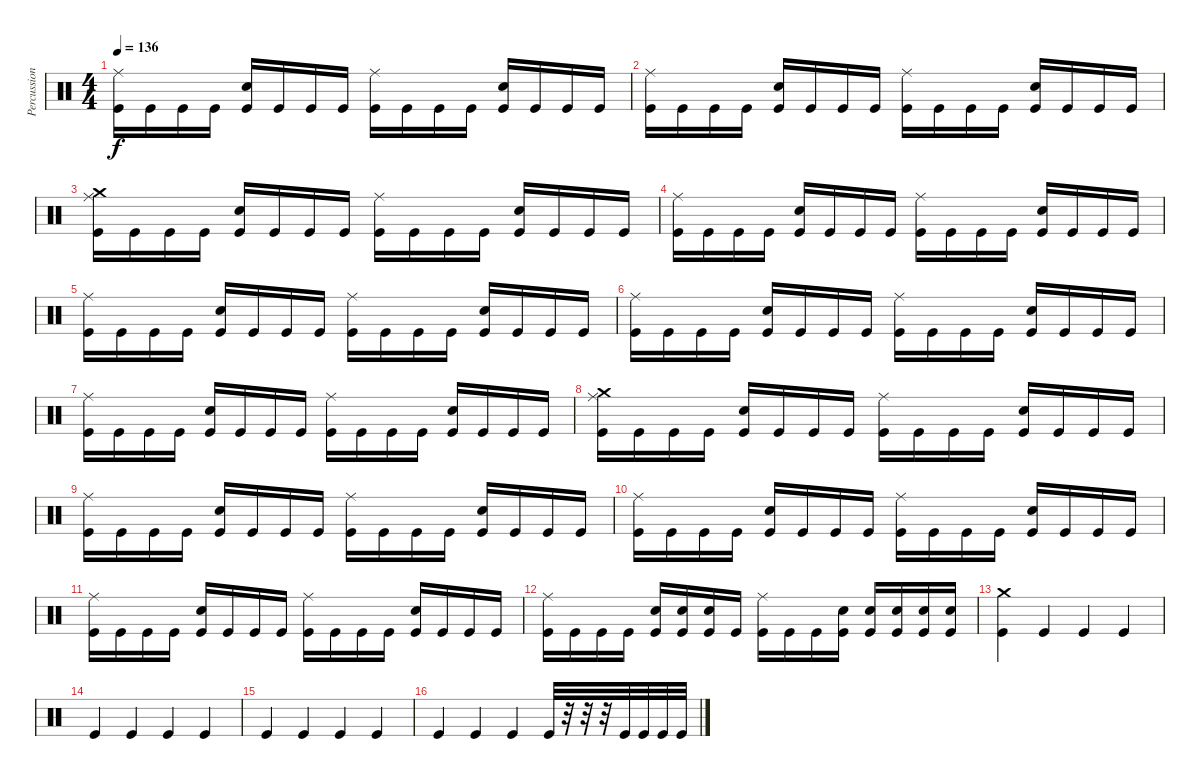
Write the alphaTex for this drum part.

\track ("Percussion IV" "Percussion") {instrument percussion}
\staff {score}
\articulation defaults
\ts (4 4)
\tempo 136
\clef neutral
\ks c
("Ride (middle)" "Kick (hit)").16{dy f} "Kick (hit)".16 "Kick (hit)".16 "Kick (hit)".16 ("Electric Snare (hit)" "Kick (hit)").16 "Kick (hit)".16 "Kick (hit)".16 "Kick (hit)".16 ("Ride (middle)" "Kick (hit)").16 "Kick (hit)".16 "Kick (hit)".16 "Kick (hit)".16 ("Electric Snare (hit)" "Kick (hit)").16 "Kick (hit)".16 "Kick (hit)".16 "Kick (hit)".16 |
("Ride (middle)" "Kick (hit)").16 "Kick (hit)".16 "Kick (hit)".16 "Kick (hit)".16 ("Electric Snare (hit)" "Kick (hit)").16 "Kick (hit)".16 "Kick (hit)".16 "Kick (hit)".16 ("Ride (middle)" "Kick (hit)").16 "Kick (hit)".16 "Kick (hit)".16 "Kick (hit)".16 ("Electric Snare (hit)" "Kick (hit)").16 "Kick (hit)".16 "Kick (hit)".16 "Kick (hit)".16 |
("Crash medium (hit)" "Ride (middle)" "Kick (hit)").16 "Kick (hit)".16 "Kick (hit)".16 "Kick (hit)".16 ("Electric Snare (hit)" "Kick (hit)").16 "Kick (hit)".16 "Kick (hit)".16 "Kick (hit)".16 ("Ride (middle)" "Kick (hit)").16 "Kick (hit)".16 "Kick (hit)".16 "Kick (hit)".16 ("Electric Snare (hit)" "Kick (hit)").16 "Kick (hit)".16 "Kick (hit)".16 "Kick (hit)".16 |
("Ride (middle)" "Kick (hit)").16 "Kick (hit)".16 "Kick (hit)".16 "Kick (hit)".16 ("Electric Snare (hit)" "Kick (hit)").16 "Kick (hit)".16 "Kick (hit)".16 "Kick (hit)".16 ("Ride (middle)" "Kick (hit)").16 "Kick (hit)".16 "Kick (hit)".16 "Kick (hit)".16 ("Electric Snare (hit)" "Kick (hit)").16 "Kick (hit)".16 "Kick (hit)".16 "Kick (hit)".16 |
("Ride (middle)" "Kick (hit)").16 "Kick (hit)".16 "Kick (hit)".16 "Kick (hit)".16 ("Electric Snare (hit)" "Kick (hit)").16 "Kick (hit)".16 "Kick (hit)".16 "Kick (hit)".16 ("Ride (middle)" "Kick (hit)").16 "Kick (hit)".16 "Kick (hit)".16 "Kick (hit)".16 ("Electric Snare (hit)" "Kick (hit)").16 "Kick (hit)".16 "Kick (hit)".16 "Kick (hit)".16 |
("Ride (middle)" "Kick (hit)").16 "Kick (hit)".16 "Kick (hit)".16 "Kick (hit)".16 ("Electric Snare (hit)" "Kick (hit)").16 "Kick (hit)".16 "Kick (hit)".16 "Kick (hit)".16 ("Ride (middle)" "Kick (hit)").16 "Kick (hit)".16 "Kick (hit)".16 "Kick (hit)".16 ("Electric Snare (hit)" "Kick (hit)").16 "Kick (hit)".16 "Kick (hit)".16 "Kick (hit)".16 |
("Ride (middle)" "Kick (hit)").16 "Kick (hit)".16 "Kick (hit)".16 "Kick (hit)".16 ("Electric Snare (hit)" "Kick (hit)").16 "Kick (hit)".16 "Kick (hit)".16 "Kick (hit)".16 ("Ride (middle)" "Kick (hit)").16 "Kick (hit)".16 "Kick (hit)".16 "Kick (hit)".16 ("Electric Snare (hit)" "Kick (hit)").16 "Kick (hit)".16 "Kick (hit)".16 "Kick (hit)".16 |
("Crash medium (hit)" "Ride (middle)" "Kick (hit)").16 "Kick (hit)".16 "Kick (hit)".16 "Kick (hit)".16 ("Electric Snare (hit)" "Kick (hit)").16 "Kick (hit)".16 "Kick (hit)".16 "Kick (hit)".16 ("Ride (middle)" "Kick (hit)").16 "Kick (hit)".16 "Kick (hit)".16 "Kick (hit)".16 ("Electric Snare (hit)" "Kick (hit)").16 "Kick (hit)".16 "Kick (hit)".16 "Kick (hit)".16 |
("Ride (middle)" "Kick (hit)").16 "Kick (hit)".16 "Kick (hit)".16 "Kick (hit)".16 ("Electric Snare (hit)" "Kick (hit)").16 "Kick (hit)".16 "Kick (hit)".16 "Kick (hit)".16 ("Ride (middle)" "Kick (hit)").16 "Kick (hit)".16 "Kick (hit)".16 "Kick (hit)".16 ("Electric Snare (hit)" "Kick (hit)").16 "Kick (hit)".16 "Kick (hit)".16 "Kick (hit)".16 |
("Ride (middle)" "Kick (hit)").16 "Kick (hit)".16 "Kick (hit)".16 "Kick (hit)".16 ("Electric Snare (hit)" "Kick (hit)").16 "Kick (hit)".16 "Kick (hit)".16 "Kick (hit)".16 ("Ride (middle)" "Kick (hit)").16 "Kick (hit)".16 "Kick (hit)".16 "Kick (hit)".16 ("Electric Snare (hit)" "Kick (hit)").16 "Kick (hit)".16 "Kick (hit)".16 "Kick (hit)".16 |
("Ride (middle)" "Kick (hit)").16 "Kick (hit)".16 "Kick (hit)".16 "Kick (hit)".16 ("Electric Snare (hit)" "Kick (hit)").16 "Kick (hit)".16 "Kick (hit)".16 "Kick (hit)".16 ("Ride (middle)" "Kick (hit)").16 "Kick (hit)".16 "Kick (hit)".16 "Kick (hit)".16 ("Electric Snare (hit)" "Kick (hit)").16 "Kick (hit)".16 "Kick (hit)".16 "Kick (hit)".16 |
("Ride (middle)" "Kick (hit)").16 "Kick (hit)".16 "Kick (hit)".16 "Kick (hit)".16 ("Electric Snare (hit)" "Kick (hit)").16 ("Electric Snare (hit)" "Kick (hit)").16 ("Electric Snare (hit)" "Kick (hit)").16 "Kick (hit)".16 ("Ride (middle)" "Kick (hit)").16 "Kick (hit)".16 "Kick (hit)".16 ("Electric Snare (hit)" "Kick (hit)").16 ("Electric Snare (hit)" "Kick (hit)").16 ("Electric Snare (hit)" "Kick (hit)").16 ("Electric Snare (hit)" "Kick (hit)").16 ("Electric Snare (hit)" "Kick (hit)").16 |
("Crash medium (hit)" "Kick (hit)").4 "Kick (hit)".4 "Kick (hit)".4 "Kick (hit)".4 |
"Kick (hit)".4 "Kick (hit)".4 "Kick (hit)".4 "Kick (hit)".4 |
"Kick (hit)".4 "Kick (hit)".4 "Kick (hit)".4 "Kick (hit)".4 |
"Kick (hit)".4 "Kick (hit)".4 "Kick (hit)".4 "Kick (hit)".32 r.32 r.32 r.32 "Kick (hit)".32 "Kick (hit)".32 "Kick (hit)".32 "Kick (hit)".32
